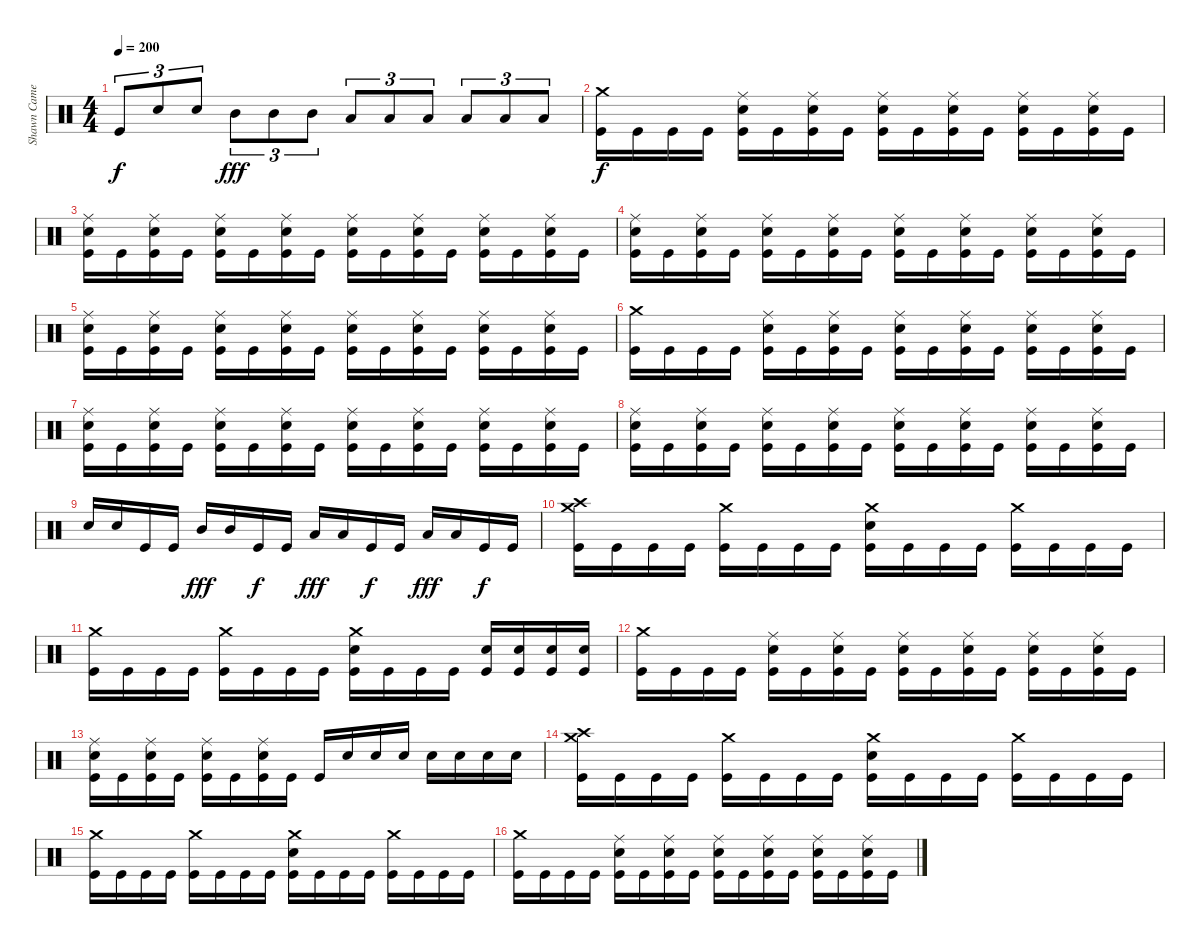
\track ("Shawn Cameron" "Shawn Came") {instrument percussion}
\staff {score}
\articulation defaults
\ts (4 4)
\tempo 200
\clef neutral
\ks c "Kick (hit)".8{tu (3 2) dy f} "Snare (hit) 2".8{tu (3 2)} "Snare (hit) 2".8{tu (3 2)} "Mid Tom (hit)".8{tu (3 2) dy fff} "Mid Tom (hit)".8{tu (3 2)} "Mid Tom (hit)".8{tu (3 2)} "Low Tom (hit)".8{tu (3 2)} "Low Tom (hit)".8{tu (3 2)} "Low Tom (hit)".8{tu (3 2)} "Low Floor Tom (hit)".8{tu (3 2)} "Low Floor Tom (hit)".8{tu (3 2)} "Low Floor Tom (hit)".8{tu (3 2)}
|
("Crash medium (hit)" "Kick (hit)").16{dy f} "Kick (hit)".16 "Kick (hit)".16 "Kick (hit)".16 ("Ride (middle)" "Snare (hit) 2" "Kick (hit)").16 "Kick (hit)".16 ("Ride (middle)" "Snare (hit) 2" "Kick (hit)").16 "Kick (hit)".16 ("Ride (middle)" "Snare (hit) 2" "Kick (hit)").16 "Kick (hit)".16 ("Ride (middle)" "Snare (hit) 2" "Kick (hit)").16 "Kick (hit)".16 ("Ride (middle)" "Snare (hit) 2" "Kick (hit)").16 "Kick (hit)".16 ("Ride (middle)" "Snare (hit) 2" "Kick (hit)").16 "Kick (hit)".16 |
("Ride (middle)" "Snare (hit) 2" "Kick (hit)").16 "Kick (hit)".16 ("Ride (middle)" "Snare (hit) 2" "Kick (hit)").16 "Kick (hit)".16 ("Ride (middle)" "Snare (hit) 2" "Kick (hit)").16 "Kick (hit)".16 ("Ride (middle)" "Snare (hit) 2" "Kick (hit)").16 "Kick (hit)".16 ("Ride (middle)" "Snare (hit) 2" "Kick (hit)").16 "Kick (hit)".16 ("Ride (middle)" "Snare (hit) 2" "Kick (hit)").16 "Kick (hit)".16 ("Ride (middle)" "Snare (hit) 2" "Kick (hit)").16 "Kick (hit)".16 ("Ride (middle)" "Snare (hit) 2" "Kick (hit)").16 "Kick (hit)".16 |
("Ride (middle)" "Snare (hit) 2" "Kick (hit)").16 "Kick (hit)".16 ("Ride (middle)" "Snare (hit) 2" "Kick (hit)").16 "Kick (hit)".16 ("Ride (middle)" "Snare (hit) 2" "Kick (hit)").16 "Kick (hit)".16 ("Ride (middle)" "Snare (hit) 2" "Kick (hit)").16 "Kick (hit)".16 ("Ride (middle)" "Snare (hit) 2" "Kick (hit)").16 "Kick (hit)".16 ("Ride (middle)" "Snare (hit) 2" "Kick (hit)").16 "Kick (hit)".16 ("Ride (middle)" "Snare (hit) 2" "Kick (hit)").16 "Kick (hit)".16 ("Ride (middle)" "Snare (hit) 2" "Kick (hit)").16 "Kick (hit)".16 |
("Ride (middle)" "Snare (hit) 2" "Kick (hit)").16 "Kick (hit)".16 ("Ride (middle)" "Snare (hit) 2" "Kick (hit)").16 "Kick (hit)".16 ("Ride (middle)" "Snare (hit) 2" "Kick (hit)").16 "Kick (hit)".16 ("Ride (middle)" "Snare (hit) 2" "Kick (hit)").16 "Kick (hit)".16 ("Ride (middle)" "Snare (hit) 2" "Kick (hit)").16 "Kick (hit)".16 ("Ride (middle)" "Snare (hit) 2" "Kick (hit)").16 "Kick (hit)".16 ("Ride (middle)" "Snare (hit) 2" "Kick (hit)").16 "Kick (hit)".16 ("Ride (middle)" "Snare (hit) 2" "Kick (hit)").16 "Kick (hit)".16 |
("Crash medium (hit)" "Kick (hit)").16 "Kick (hit)".16 "Kick (hit)".16 "Kick (hit)".16 ("Ride (middle)" "Snare (hit) 2" "Kick (hit)").16 "Kick (hit)".16 ("Ride (middle)" "Snare (hit) 2" "Kick (hit)").16 "Kick (hit)".16 ("Ride (middle)" "Snare (hit) 2" "Kick (hit)").16 "Kick (hit)".16 ("Ride (middle)" "Snare (hit) 2" "Kick (hit)").16 "Kick (hit)".16 ("Ride (middle)" "Snare (hit) 2" "Kick (hit)").16 "Kick (hit)".16 ("Ride (middle)" "Snare (hit) 2" "Kick (hit)").16 "Kick (hit)".16 |
("Ride (middle)" "Snare (hit) 2" "Kick (hit)").16 "Kick (hit)".16 ("Ride (middle)" "Snare (hit) 2" "Kick (hit)").16 "Kick (hit)".16 ("Ride (middle)" "Snare (hit) 2" "Kick (hit)").16 "Kick (hit)".16 ("Ride (middle)" "Snare (hit) 2" "Kick (hit)").16 "Kick (hit)".16 ("Ride (middle)" "Snare (hit) 2" "Kick (hit)").16 "Kick (hit)".16 ("Ride (middle)" "Snare (hit) 2" "Kick (hit)").16 "Kick (hit)".16 ("Ride (middle)" "Snare (hit) 2" "Kick (hit)").16 "Kick (hit)".16 ("Ride (middle)" "Snare (hit) 2" "Kick (hit)").16 "Kick (hit)".16 |
("Ride (middle)" "Snare (hit) 2" "Kick (hit)").16 "Kick (hit)".16 ("Ride (middle)" "Snare (hit) 2" "Kick (hit)").16 "Kick (hit)".16 ("Ride (middle)" "Snare (hit) 2" "Kick (hit)").16 "Kick (hit)".16 ("Ride (middle)" "Snare (hit) 2" "Kick (hit)").16 "Kick (hit)".16 ("Ride (middle)" "Snare (hit) 2" "Kick (hit)").16 "Kick (hit)".16 ("Ride (middle)" "Snare (hit) 2" "Kick (hit)").16 "Kick (hit)".16 ("Ride (middle)" "Snare (hit) 2" "Kick (hit)").16 "Kick (hit)".16 ("Ride (middle)" "Snare (hit) 2" "Kick (hit)").16 "Kick (hit)".16 |
"Snare (hit) 2".16 "Snare (hit) 2".16 "Kick (hit)".16 "Kick (hit)".16 "Mid Tom (hit)".16{dy fff} "Mid Tom (hit)".16 "Kick (hit)".16{dy f} "Kick (hit)".16 "Low Tom (hit)".16{dy fff} "Low Tom (hit)".16 "Kick (hit)".16{dy f} "Kick (hit)".16 "Low Floor Tom (hit)".16{dy fff} "Low Floor Tom (hit)".16 "Kick (hit)".16{dy f} "Kick (hit)".16 |
("Crash high (hit)" "Crash medium (hit)" "Kick (hit)").16 "Kick (hit)".16 "Kick (hit)".16 "Kick (hit)".16 ("Crash medium (hit)" "Kick (hit)").16 "Kick (hit)".16 "Kick (hit)".16 "Kick (hit)".16 ("Crash medium (hit)" "Snare (hit) 2" "Kick (hit)").16 "Kick (hit)".16 "Kick (hit)".16 "Kick (hit)".16 ("Crash medium (hit)" "Kick (hit)").16 "Kick (hit)".16 "Kick (hit)".16 "Kick (hit)".16 |
("Crash medium (hit)" "Kick (hit)").16 "Kick (hit)".16 "Kick (hit)".16 "Kick (hit)".16 ("Crash medium (hit)" "Kick (hit)").16 "Kick (hit)".16 "Kick (hit)".16 "Kick (hit)".16 ("Crash medium (hit)" "Snare (hit) 2" "Kick (hit)").16 "Kick (hit)".16 "Kick (hit)".16 "Kick (hit)".16 ("Snare (hit) 2" "Kick (hit)").16 ("Snare (hit) 2" "Kick (hit)").16 ("Snare (hit) 2" "Kick (hit)").16 ("Snare (hit) 2" "Kick (hit)").16 |
("Crash medium (hit)" "Kick (hit)").16 "Kick (hit)".16 "Kick (hit)".16 "Kick (hit)".16 ("Ride (middle)" "Snare (hit) 2" "Kick (hit)").16 "Kick (hit)".16 ("Ride (middle)" "Snare (hit) 2" "Kick (hit)").16 "Kick (hit)".16 ("Ride (middle)" "Snare (hit) 2" "Kick (hit)").16 "Kick (hit)".16 ("Ride (middle)" "Snare (hit) 2" "Kick (hit)").16 "Kick (hit)".16 ("Ride (middle)" "Snare (hit) 2" "Kick (hit)").16 "Kick (hit)".16 ("Ride (middle)" "Snare (hit) 2" "Kick (hit)").16 "Kick (hit)".16 |
("Ride (middle)" "Snare (hit) 2" "Kick (hit)").16 "Kick (hit)".16 ("Ride (middle)" "Snare (hit) 2" "Kick (hit)").16 "Kick (hit)".16 ("Ride (middle)" "Snare (hit) 2" "Kick (hit)").16 "Kick (hit)".16 ("Ride (middle)" "Snare (hit) 2" "Kick (hit)").16 "Kick (hit)".16 "Kick (hit)".16 "Snare (hit) 2".16 "Snare (hit) 2".16 "Snare (hit) 2".16 "Snare (hit) 2".16 "Snare (hit) 2".16 "Snare (hit) 2".16 "Snare (hit) 2".16 |
("Crash high (hit)" "Crash medium (hit)" "Kick (hit)").16 "Kick (hit)".16 "Kick (hit)".16 "Kick (hit)".16 ("Crash medium (hit)" "Kick (hit)").16 "Kick (hit)".16 "Kick (hit)".16 "Kick (hit)".16 ("Crash medium (hit)" "Snare (hit) 2" "Kick (hit)").16 "Kick (hit)".16 "Kick (hit)".16 "Kick (hit)".16 ("Crash medium (hit)" "Kick (hit)").16 "Kick (hit)".16 "Kick (hit)".16 "Kick (hit)".16 |
("Crash medium (hit)" "Kick (hit)").16 "Kick (hit)".16 "Kick (hit)".16 "Kick (hit)".16 ("Crash medium (hit)" "Kick (hit)").16 "Kick (hit)".16 "Kick (hit)".16 "Kick (hit)".16 ("Crash medium (hit)" "Snare (hit) 2" "Kick (hit)").16 "Kick (hit)".16 "Kick (hit)".16 "Kick (hit)".16 ("Crash medium (hit)" "Kick (hit)").16 "Kick (hit)".16 "Kick (hit)".16 "Kick (hit)".16 |
("Crash medium (hit)" "Kick (hit)").16 "Kick (hit)".16 "Kick (hit)".16 "Kick (hit)".16 ("Ride (middle)" "Snare (hit) 2" "Kick (hit)").16 "Kick (hit)".16 ("Ride (middle)" "Snare (hit) 2" "Kick (hit)").16 "Kick (hit)".16 ("Ride (middle)" "Snare (hit) 2" "Kick (hit)").16 "Kick (hit)".16 ("Ride (middle)" "Snare (hit) 2" "Kick (hit)").16 "Kick (hit)".16 ("Ride (middle)" "Snare (hit) 2" "Kick (hit)").16 "Kick (hit)".16 ("Ride (middle)" "Snare (hit) 2" "Kick (hit)").16 "Kick (hit)".16
